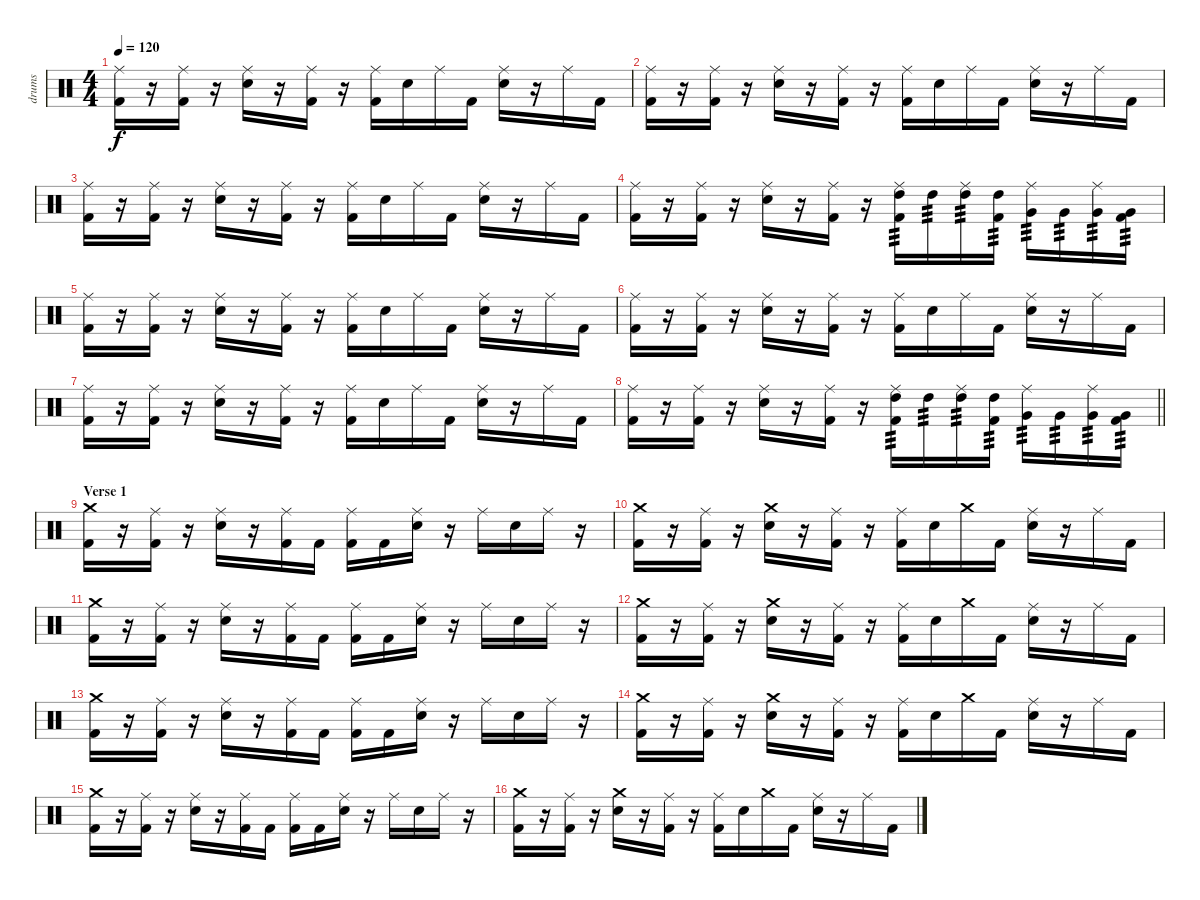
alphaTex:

\track ("drums" "drums") {instrument percussion}
\staff {score}
\articulation defaults
\ts (4 4)
\tempo 120
\clef neutral
\ks c
("Ride (middle)" "Kick (hit) 2").16{dy f} r.16 ("Ride (middle)" "Kick (hit) 2").16 r.16 ("Ride (middle)" "Snare (hit) 2").16 r.16 ("Ride (middle)" "Kick (hit) 2").16 r.16 ("Ride (middle)" "Kick (hit) 2").16 "Snare (hit) 2".16 "Ride (middle)".16 "Kick (hit) 2".16 ("Ride (middle)" "Snare (hit) 2").16 r.16 "Ride (middle)".16 "Kick (hit) 2".16 |
("Ride (middle)" "Kick (hit) 2").16 r.16 ("Ride (middle)" "Kick (hit) 2").16 r.16 ("Ride (middle)" "Snare (hit) 2").16 r.16 ("Ride (middle)" "Kick (hit) 2").16 r.16 ("Ride (middle)" "Kick (hit) 2").16 "Snare (hit) 2".16 "Ride (middle)".16 "Kick (hit) 2".16 ("Ride (middle)" "Snare (hit) 2").16 r.16 "Ride (middle)".16 "Kick (hit) 2".16 |
("Ride (middle)" "Kick (hit) 2").16 r.16 ("Ride (middle)" "Kick (hit) 2").16 r.16 ("Ride (middle)" "Snare (hit) 2").16 r.16 ("Ride (middle)" "Kick (hit) 2").16 r.16 ("Ride (middle)" "Kick (hit) 2").16 "Snare (hit) 2".16 "Ride (middle)".16 "Kick (hit) 2".16 ("Ride (middle)" "Snare (hit) 2").16 r.16 "Ride (middle)".16 "Kick (hit) 2".16 |
("Ride (middle)" "Kick (hit) 2").16 r.16 ("Ride (middle)" "Kick (hit) 2").16 r.16 ("Ride (middle)" "Snare (hit) 2").16 r.16 ("Ride (middle)" "Kick (hit) 2").16 r.16 ("Ride (middle)" "High Tom (hit)" "Kick (hit) 2").16{tp 3} "High Tom (hit)".16{tp 3} ("Ride (middle)" "High Tom (hit)").16{tp 3} ("High Tom (hit)" "Kick (hit) 2").16{tp 3} ("Ride (middle)" "Very Low Tom (hit)").16{tp 3} "Very Low Tom (hit)".16{tp 3} ("Ride (middle)" "Very Low Tom (hit)").16{tp 3} ("Very Low Tom (hit)" "Kick (hit) 2").16{tp 3} |
("Ride (middle)" "Kick (hit) 2").16 r.16 ("Ride (middle)" "Kick (hit) 2").16 r.16 ("Ride (middle)" "Snare (hit) 2").16 r.16 ("Ride (middle)" "Kick (hit) 2").16 r.16 ("Ride (middle)" "Kick (hit) 2").16 "Snare (hit) 2".16 "Ride (middle)".16 "Kick (hit) 2".16 ("Ride (middle)" "Snare (hit) 2").16 r.16 "Ride (middle)".16 "Kick (hit) 2".16 |
("Ride (middle)" "Kick (hit) 2").16 r.16 ("Ride (middle)" "Kick (hit) 2").16 r.16 ("Ride (middle)" "Snare (hit) 2").16 r.16 ("Ride (middle)" "Kick (hit) 2").16 r.16 ("Ride (middle)" "Kick (hit) 2").16 "Snare (hit) 2".16 "Ride (middle)".16 "Kick (hit) 2".16 ("Ride (middle)" "Snare (hit) 2").16 r.16 "Ride (middle)".16 "Kick (hit) 2".16 |
("Ride (middle)" "Kick (hit) 2").16 r.16 ("Ride (middle)" "Kick (hit) 2").16 r.16 ("Ride (middle)" "Snare (hit) 2").16 r.16 ("Ride (middle)" "Kick (hit) 2").16 r.16 ("Ride (middle)" "Kick (hit) 2").16 "Snare (hit) 2".16 "Ride (middle)".16 "Kick (hit) 2".16 ("Ride (middle)" "Snare (hit) 2").16 r.16 "Ride (middle)".16 "Kick (hit) 2".16 |
\barLineRight lightlight
("Ride (middle)" "Kick (hit) 2").16 r.16 ("Ride (middle)" "Kick (hit) 2").16 r.16 ("Ride (middle)" "Snare (hit) 2").16 r.16 ("Ride (middle)" "Kick (hit) 2").16 r.16 ("Ride (middle)" "High Tom (hit)" "Kick (hit) 2").16{tp 3} "High Tom (hit)".16{tp 3} ("Ride (middle)" "High Tom (hit)").16{tp 3} ("High Tom (hit)" "Kick (hit) 2").16{tp 3} ("Ride (middle)" "Very Low Tom (hit)").16{tp 3} "Very Low Tom (hit)".16{tp 3} ("Ride (middle)" "Very Low Tom (hit)").16{tp 3} ("Very Low Tom (hit)" "Kick (hit) 2").16{tp 3} |
\section ("" "Verse 1")
("Crash medium (hit)" "Kick (hit) 2").16 r.16 ("Ride (middle)" "Kick (hit) 2").16 r.16 ("Ride (middle)" "Snare (hit) 2").16 r.16 ("Ride (middle)" "Kick (hit) 2").16 "Kick (hit) 2".16 ("Ride (middle)" "Kick (hit) 2").16 "Kick (hit) 2".16 ("Ride (middle)" "Snare (hit) 2").16 r.16 "Ride (middle)".16 "Snare (hit) 2".16 "Ride (middle)".16 r.16 |
("Crash medium (hit)" "Kick (hit) 2").16 r.16 ("Ride (middle)" "Kick (hit) 2").16 r.16 ("Crash medium (hit)" "Snare (hit) 2").16 r.16 ("Ride (middle)" "Kick (hit) 2").16 r.16 ("Ride (middle)" "Kick (hit) 2").16 "Snare (hit) 2".16 "Crash medium (hit)".16 "Kick (hit) 2".16 ("Ride (middle)" "Snare (hit) 2").16 r.16 "Ride (middle)".16 "Kick (hit) 2".16 |
("Crash medium (hit)" "Kick (hit) 2").16 r.16 ("Ride (middle)" "Kick (hit) 2").16 r.16 ("Ride (middle)" "Snare (hit) 2").16 r.16 ("Ride (middle)" "Kick (hit) 2").16 "Kick (hit) 2".16 ("Ride (middle)" "Kick (hit) 2").16 "Kick (hit) 2".16 ("Ride (middle)" "Snare (hit) 2").16 r.16 "Ride (middle)".16 "Snare (hit) 2".16 "Ride (middle)".16 r.16 |
("Crash medium (hit)" "Kick (hit) 2").16 r.16 ("Ride (middle)" "Kick (hit) 2").16 r.16 ("Crash medium (hit)" "Snare (hit) 2").16 r.16 ("Ride (middle)" "Kick (hit) 2").16 r.16 ("Ride (middle)" "Kick (hit) 2").16 "Snare (hit) 2".16 "Crash medium (hit)".16 "Kick (hit) 2".16 ("Ride (middle)" "Snare (hit) 2").16 r.16 "Ride (middle)".16 "Kick (hit) 2".16 |
("Crash medium (hit)" "Kick (hit) 2").16 r.16 ("Ride (middle)" "Kick (hit) 2").16 r.16 ("Ride (middle)" "Snare (hit) 2").16 r.16 ("Ride (middle)" "Kick (hit) 2").16 "Kick (hit) 2".16 ("Ride (middle)" "Kick (hit) 2").16 "Kick (hit) 2".16 ("Ride (middle)" "Snare (hit) 2").16 r.16 "Ride (middle)".16 "Snare (hit) 2".16 "Ride (middle)".16 r.16 |
("Crash medium (hit)" "Kick (hit) 2").16 r.16 ("Ride (middle)" "Kick (hit) 2").16 r.16 ("Crash medium (hit)" "Snare (hit) 2").16 r.16 ("Ride (middle)" "Kick (hit) 2").16 r.16 ("Ride (middle)" "Kick (hit) 2").16 "Snare (hit) 2".16 "Crash medium (hit)".16 "Kick (hit) 2".16 ("Ride (middle)" "Snare (hit) 2").16 r.16 "Ride (middle)".16 "Kick (hit) 2".16 |
("Crash medium (hit)" "Kick (hit) 2").16 r.16 ("Ride (middle)" "Kick (hit) 2").16 r.16 ("Ride (middle)" "Snare (hit) 2").16 r.16 ("Ride (middle)" "Kick (hit) 2").16 "Kick (hit) 2".16 ("Ride (middle)" "Kick (hit) 2").16 "Kick (hit) 2".16 ("Ride (middle)" "Snare (hit) 2").16 r.16 "Ride (middle)".16 "Snare (hit) 2".16 "Ride (middle)".16 r.16 |
("Crash medium (hit)" "Kick (hit) 2").16 r.16 ("Ride (middle)" "Kick (hit) 2").16 r.16 ("Crash medium (hit)" "Snare (hit) 2").16 r.16 ("Ride (middle)" "Kick (hit) 2").16 r.16 ("Ride (middle)" "Kick (hit) 2").16 "Snare (hit) 2".16 "Crash medium (hit)".16 "Kick (hit) 2".16 ("Ride (middle)" "Snare (hit) 2").16 r.16 "Ride (middle)".16 "Kick (hit) 2".16
